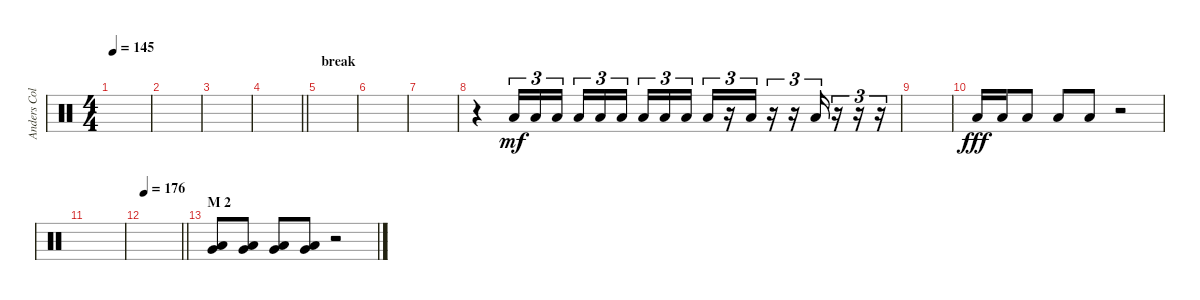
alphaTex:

\track ("Anders Colsefni" "Anders Col") {instrument percussion}
\staff {score}
\articulation defaults
\ts (4 4)
\tempo 145
\clef neutral
\ks c
|
|
|
\barLineRight lightlight
|
\section ("" "break")
|
|
|
r.4 "Low Floor Tom (hit)".16{tu (3 2) dy mf} "Low Floor Tom (hit)".16{tu (3 2)} "Low Floor Tom (hit)".16{tu (3 2) beam splitsecondary} "Low Floor Tom (hit)".16{tu (3 2)} "Low Floor Tom (hit)".16{tu (3 2)} "Low Floor Tom (hit)".16{tu (3 2)} "Low Floor Tom (hit)".16{tu (3 2)} "Low Floor Tom (hit)".16{tu (3 2)} "Low Floor Tom (hit)".16{tu (3 2) beam splitsecondary} "Low Floor Tom (hit)".16{tu (3 2)} r.16{tu (3 2)} "Low Floor Tom (hit)".16{tu (3 2)} r.16{tu (3 2)} r.16{tu (3 2)} "Low Floor Tom (hit)".16{tu (3 2)} r.16{tu (3 2)} r.16{tu (3 2)} r.16{tu (3 2)} |
|
"Low Floor Tom (hit)".16{dy fff} "Low Floor Tom (hit)".16 "Low Floor Tom (hit)".8 "Low Floor Tom (hit)".8 "Low Floor Tom (hit)".8 r.2 |
|
\tempo 176
\barLineRight lightlight
|
\section ("" "M 2")
("Very Low Tom (hit)" "Low Floor Tom (hit)").8 ("Very Low Tom (hit)" "Low Floor Tom (hit)").8 ("Very Low Tom (hit)" "Low Floor Tom (hit)").8 ("Very Low Tom (hit)" "Low Floor Tom (hit)").8 r.2
